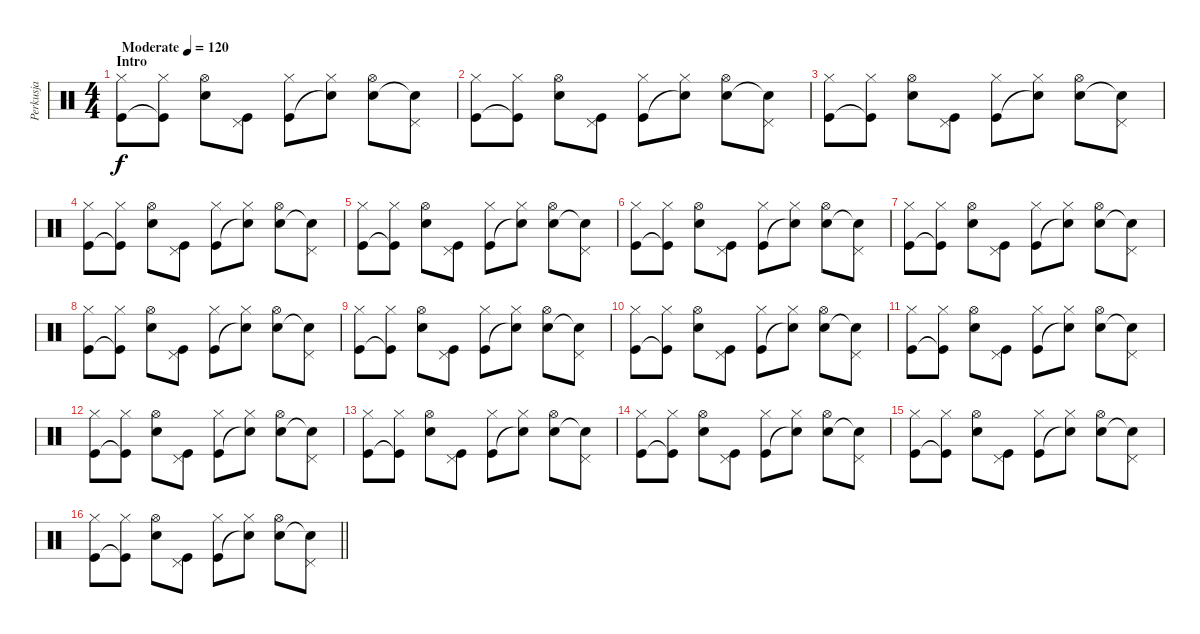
\track ("Perkusja" "Perkusja") {instrument percussion}
\staff {score}
\articulation defaults
\ts (4 4)
\section ("" "Intro")
\tempo (120 "Moderate")
\clef neutral
\ks c
("Kick (hit)" "Hi-Hat (closed)").8{dy f} ("Kick (hit)"{t} "Hi-Hat (closed)").8 ("Snare (hit) 2" "Hi-Hat (open)").8 ("Kick (hit)" "Pedal Hi-Hat (hit)").8 ("Kick (hit)" "Hi-Hat (closed)").8 ("Snare (hit)"{t} "Hi-Hat (closed)").8 ("Snare (hit) 2" "Hi-Hat (open)").8 ("Snare (hit)"{t} "Pedal Hi-Hat (hit)").8 |
("Kick (hit)" "Hi-Hat (closed)").8 ("Kick (hit)"{t} "Hi-Hat (closed)").8 ("Snare (hit) 2" "Hi-Hat (open)").8 ("Kick (hit)" "Pedal Hi-Hat (hit)").8 ("Kick (hit)" "Hi-Hat (closed)").8 ("Snare (hit)"{t} "Hi-Hat (closed)").8 ("Snare (hit) 2" "Hi-Hat (open)").8 ("Snare (hit)"{t} "Pedal Hi-Hat (hit)").8 |
("Kick (hit)" "Hi-Hat (closed)").8 ("Kick (hit)"{t} "Hi-Hat (closed)").8 ("Snare (hit) 2" "Hi-Hat (open)").8 ("Kick (hit)" "Pedal Hi-Hat (hit)").8 ("Kick (hit)" "Hi-Hat (closed)").8 ("Snare (hit)"{t} "Hi-Hat (closed)").8 ("Snare (hit) 2" "Hi-Hat (open)").8 ("Snare (hit)"{t} "Pedal Hi-Hat (hit)").8 |
("Kick (hit)" "Hi-Hat (closed)").8 ("Kick (hit)"{t} "Hi-Hat (closed)").8 ("Snare (hit) 2" "Hi-Hat (open)").8 ("Kick (hit)" "Pedal Hi-Hat (hit)").8 ("Kick (hit)" "Hi-Hat (closed)").8 ("Snare (hit)"{t} "Hi-Hat (closed)").8 ("Snare (hit) 2" "Hi-Hat (open)").8 ("Snare (hit)"{t} "Pedal Hi-Hat (hit)").8 |
("Kick (hit)" "Hi-Hat (closed)").8 ("Kick (hit)"{t} "Hi-Hat (closed)").8 ("Snare (hit) 2" "Hi-Hat (open)").8 ("Kick (hit)" "Pedal Hi-Hat (hit)").8 ("Kick (hit)" "Hi-Hat (closed)").8 ("Snare (hit)"{t} "Hi-Hat (closed)").8 ("Snare (hit) 2" "Hi-Hat (open)").8 ("Snare (hit)"{t} "Pedal Hi-Hat (hit)").8 |
("Kick (hit)" "Hi-Hat (closed)").8 ("Kick (hit)"{t} "Hi-Hat (closed)").8 ("Snare (hit) 2" "Hi-Hat (open)").8 ("Kick (hit)" "Pedal Hi-Hat (hit)").8 ("Kick (hit)" "Hi-Hat (closed)").8 ("Snare (hit)"{t} "Hi-Hat (closed)").8 ("Snare (hit) 2" "Hi-Hat (open)").8 ("Snare (hit)"{t} "Pedal Hi-Hat (hit)").8 |
("Kick (hit)" "Hi-Hat (closed)").8 ("Kick (hit)"{t} "Hi-Hat (closed)").8 ("Snare (hit) 2" "Hi-Hat (open)").8 ("Kick (hit)" "Pedal Hi-Hat (hit)").8 ("Kick (hit)" "Hi-Hat (closed)").8 ("Snare (hit)"{t} "Hi-Hat (closed)").8 ("Snare (hit) 2" "Hi-Hat (open)").8 ("Snare (hit)"{t} "Pedal Hi-Hat (hit)").8 |
("Kick (hit)" "Hi-Hat (closed)").8 ("Kick (hit)"{t} "Hi-Hat (closed)").8 ("Snare (hit) 2" "Hi-Hat (open)").8 ("Kick (hit)" "Pedal Hi-Hat (hit)").8 ("Kick (hit)" "Hi-Hat (closed)").8 ("Snare (hit)"{t} "Hi-Hat (closed)").8 ("Snare (hit) 2" "Hi-Hat (open)").8 ("Snare (hit)"{t} "Pedal Hi-Hat (hit)").8 |
("Kick (hit)" "Hi-Hat (closed)").8 ("Kick (hit)"{t} "Hi-Hat (closed)").8 ("Snare (hit) 2" "Hi-Hat (open)").8 ("Kick (hit)" "Pedal Hi-Hat (hit)").8 ("Kick (hit)" "Hi-Hat (closed)").8 ("Snare (hit)"{t} "Hi-Hat (closed)").8 ("Snare (hit) 2" "Hi-Hat (open)").8 ("Snare (hit)"{t} "Pedal Hi-Hat (hit)").8 |
("Kick (hit)" "Hi-Hat (closed)").8 ("Kick (hit)"{t} "Hi-Hat (closed)").8 ("Snare (hit) 2" "Hi-Hat (open)").8 ("Kick (hit)" "Pedal Hi-Hat (hit)").8 ("Kick (hit)" "Hi-Hat (closed)").8 ("Snare (hit)"{t} "Hi-Hat (closed)").8 ("Snare (hit) 2" "Hi-Hat (open)").8 ("Snare (hit)"{t} "Pedal Hi-Hat (hit)").8 |
("Kick (hit)" "Hi-Hat (closed)").8 ("Kick (hit)"{t} "Hi-Hat (closed)").8 ("Snare (hit) 2" "Hi-Hat (open)").8 ("Kick (hit)" "Pedal Hi-Hat (hit)").8 ("Kick (hit)" "Hi-Hat (closed)").8 ("Snare (hit)"{t} "Hi-Hat (closed)").8 ("Snare (hit) 2" "Hi-Hat (open)").8 ("Snare (hit)"{t} "Pedal Hi-Hat (hit)").8 |
("Kick (hit)" "Hi-Hat (closed)").8 ("Kick (hit)"{t} "Hi-Hat (closed)").8 ("Snare (hit) 2" "Hi-Hat (open)").8 ("Kick (hit)" "Pedal Hi-Hat (hit)").8 ("Kick (hit)" "Hi-Hat (closed)").8 ("Snare (hit)"{t} "Hi-Hat (closed)").8 ("Snare (hit) 2" "Hi-Hat (open)").8 ("Snare (hit)"{t} "Pedal Hi-Hat (hit)").8 |
("Kick (hit)" "Hi-Hat (closed)").8 ("Kick (hit)"{t} "Hi-Hat (closed)").8 ("Snare (hit) 2" "Hi-Hat (open)").8 ("Kick (hit)" "Pedal Hi-Hat (hit)").8 ("Kick (hit)" "Hi-Hat (closed)").8 ("Snare (hit)"{t} "Hi-Hat (closed)").8 ("Snare (hit) 2" "Hi-Hat (open)").8 ("Snare (hit)"{t} "Pedal Hi-Hat (hit)").8 |
("Kick (hit)" "Hi-Hat (closed)").8 ("Kick (hit)"{t} "Hi-Hat (closed)").8 ("Snare (hit) 2" "Hi-Hat (open)").8 ("Kick (hit)" "Pedal Hi-Hat (hit)").8 ("Kick (hit)" "Hi-Hat (closed)").8 ("Snare (hit)"{t} "Hi-Hat (closed)").8 ("Snare (hit) 2" "Hi-Hat (open)").8 ("Snare (hit)"{t} "Pedal Hi-Hat (hit)").8 |
("Kick (hit)" "Hi-Hat (closed)").8 ("Kick (hit)"{t} "Hi-Hat (closed)").8 ("Snare (hit) 2" "Hi-Hat (open)").8 ("Kick (hit)" "Pedal Hi-Hat (hit)").8 ("Kick (hit)" "Hi-Hat (closed)").8 ("Snare (hit)"{t} "Hi-Hat (closed)").8 ("Snare (hit) 2" "Hi-Hat (open)").8 ("Snare (hit)"{t} "Pedal Hi-Hat (hit)").8 |
\barLineRight lightlight
("Kick (hit)" "Hi-Hat (closed)").8 ("Kick (hit)"{t} "Hi-Hat (closed)").8 ("Snare (hit) 2" "Hi-Hat (open)").8 ("Kick (hit)" "Pedal Hi-Hat (hit)").8 ("Kick (hit)" "Hi-Hat (closed)").8 ("Snare (hit)"{t} "Hi-Hat (closed)").8 ("Snare (hit) 2" "Hi-Hat (open)").8 ("Snare (hit)"{t} "Pedal Hi-Hat (hit)").8
